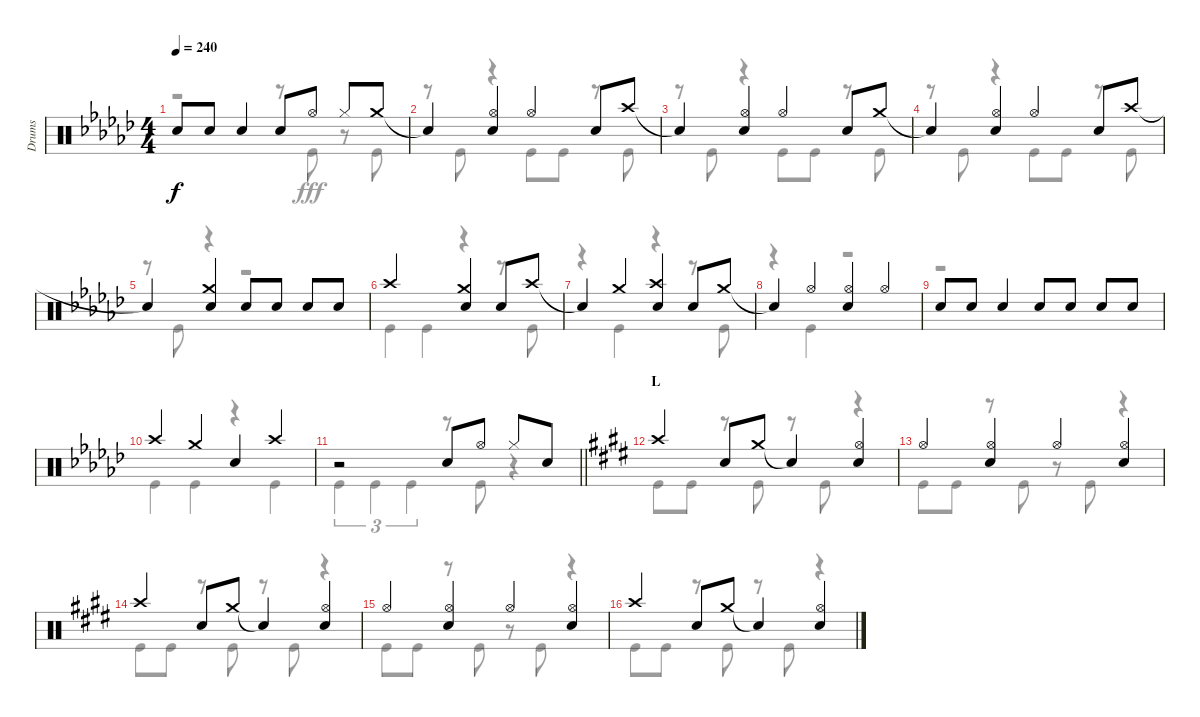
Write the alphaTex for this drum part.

\track ("Drums" "Drums") {instrument percussion}
\staff {score}
\articulation defaults
\voice
\ts (4 4)
\tempo 240
\clef neutral
\ks gb "Snare (hit) 2".8{dy f} "Snare (hit) 2".8 "Snare (hit) 2".4 "Snare (hit) 2".8 "Hi-Hat (open)".8 "Hi-Hat (closed)".8 "Crash medium (hit)".8
|
"Snare (hit)"{t}.4 ("Hi-Hat (open)" "Snare (hit) 2").4 "Hi-Hat (open)".4 "Snare (hit) 2".8 "Crash high (hit)".8 |
"Snare (hit)"{t}.4 ("Hi-Hat (open)" "Snare (hit) 2").4 "Hi-Hat (open)".4 "Snare (hit) 2".8 "Crash medium (hit)".8 |
"Snare (hit)"{t}.4 ("Hi-Hat (open)" "Snare (hit) 2").4 "Hi-Hat (open)".4 "Snare (hit) 2".8 "Crash high (hit)".8 |
"Snare (hit)"{t}.4 ("Crash medium (hit)" "Snare (hit) 2").4 "Snare (hit) 2".8 "Snare (hit) 2".8 "Snare (hit) 2".8 "Snare (hit) 2".8 |
"Crash high (hit)".2 ("Crash medium (hit)" "Snare (hit) 2").4 "Snare (hit) 2".8 "Crash high (hit)".8 |
"Snare (hit)"{t}.4 "Crash medium (hit)".4 ("Crash high (hit)" "Snare (hit) 2").4 "Snare (hit) 2".8 "Crash medium (hit)".8 |
"Snare (hit)"{t}.4 "Hi-Hat (open)".4 ("Hi-Hat (open)" "Snare (hit) 2").4 "Hi-Hat (open)".4 |
"Snare (hit) 2".8 "Snare (hit) 2".8 "Snare (hit) 2".4 "Snare (hit) 2".8 "Snare (hit) 2".8 "Snare (hit) 2".8 "Snare (hit) 2".8 |
"Crash high (hit)".4 "Crash medium (hit)".4 "Snare (hit) 2".4 "Crash high (hit)".4 |
\barLineRight lightlight
r.2 "Snare (hit) 2".8 "Hi-Hat (open)".8 "Hi-Hat (closed)".8 "Snare (hit) 2".8 |
\section ("" "L")
\ks e "Crash high (hit)".4 "Snare (hit) 2".8 "Crash medium (hit)".8 "Snare (hit)"{t}.4
("Hi-Hat (open)" "Snare (hit) 2").4 |
"Hi-Hat (open)".4 ("Hi-Hat (open)" "Snare (hit) 2").4 "Hi-Hat (open)".4 ("Hi-Hat (open)" "Snare (hit) 2").4 |
"Crash high (hit)".4 "Snare (hit) 2".8 "Crash medium (hit)".8 "Snare (hit)"{t}.4 ("Hi-Hat (open)" "Snare (hit) 2").4 |
"Hi-Hat (open)".4 ("Hi-Hat (open)" "Snare (hit) 2").4 "Hi-Hat (open)".4 ("Hi-Hat (open)" "Snare (hit) 2").4 |
"Crash high (hit)".4 "Snare (hit) 2".8 "Crash medium (hit)".8 "Snare (hit)"{t}.4 ("Hi-Hat (open)" "Snare (hit) 2").4
\voice
\clef neutral
\ottava regular
\simile none
\ks gb
r.2{dy fff} r.8 "Kick (hit)".8 r.8 "Kick (hit)".8 |
r.8 "Kick (hit)".8 r.4 "Kick (hit)".8 "Kick (hit)".8 r.8 "Kick (hit)".8 |
r.8 "Kick (hit)".8 r.4 "Kick (hit)".8 "Kick (hit)".8 r.8 "Kick (hit)".8 |
r.8 "Kick (hit)".8 r.4 "Kick (hit)".8 "Kick (hit)".8 r.8 "Kick (hit)".8 |
r.8 "Kick (hit)".8 r.4 r.2 |
"Kick (hit)".4 "Kick (hit)".4 r.4 r.8 "Kick (hit)".8 |
r.4 "Kick (hit)".4 r.4 r.8 "Kick (hit)".8 |
r.4 "Kick (hit)".4 r.2 |
r.1 |
"Kick (hit)".4 "Kick (hit)".4 r.4 "Kick (hit)".4 |
\barLineRight lightlight "Kick (hit)".4{tu (3 2)} "Kick (hit)".4{tu (3 2)} "Kick (hit)".4{tu (3 2)}
r.8 "Kick (hit)".8 r.4 |
\ks e "Kick (hit)".8 "Kick (hit)".8
r.8 "Kick (hit)".8 r.8 "Kick (hit)".8 r.4 |
"Kick (hit)".8 "Kick (hit)".8 r.8 "Kick (hit)".8 r.8 "Kick (hit)".8 r.4 |
"Kick (hit)".8 "Kick (hit)".8 r.8 "Kick (hit)".8 r.8 "Kick (hit)".8 r.4 |
"Kick (hit)".8 "Kick (hit)".8 r.8 "Kick (hit)".8 r.8 "Kick (hit)".8 r.4 |
"Kick (hit)".8 "Kick (hit)".8 r.8 "Kick (hit)".8 r.8 "Kick (hit)".8 r.4
